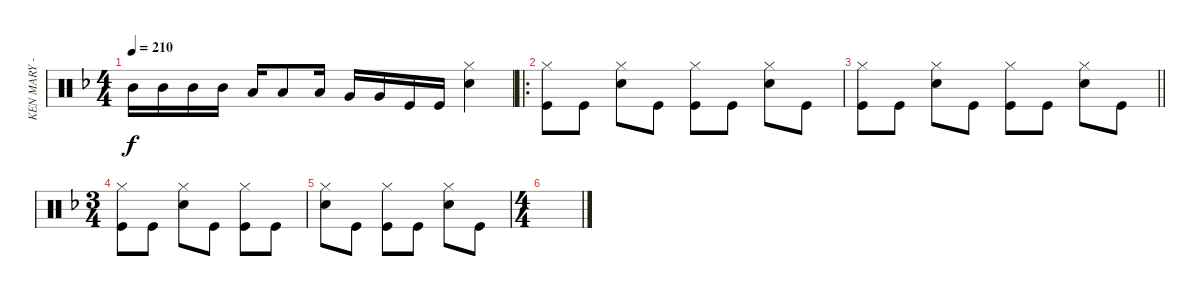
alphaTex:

\track ("KEN MARY - DRUMS" "KEN MARY -") {instrument percussion}
\staff {score}
\articulation defaults
\ts (4 4)
\tempo 210
\clef neutral
\ks f "Mid Tom (hit)".16{dy f} "Mid Tom (hit)".16 "Mid Tom (hit)".16 "Mid Tom (hit)".16 "Low Tom (hit)".16 "Low Tom (hit)".8 "Low Tom (hit)".16 "Very Low Tom (hit)".16 "Very Low Tom (hit)".16 "Kick (hit)".16 "Kick (hit)".16
("Hi-Hat (closed)" "Snare (hit) 2").4 |
\ro
("Hi-Hat (closed)" "Kick (hit)").8 "Kick (hit)".8 ("Hi-Hat (closed)" "Snare (hit) 2").8 "Kick (hit)".8 ("Hi-Hat (closed)" "Kick (hit)").8 "Kick (hit)".8 ("Hi-Hat (closed)" "Snare (hit) 2").8 "Kick (hit)".8 |
\barLineRight lightlight
("Hi-Hat (closed)" "Kick (hit)").8 "Kick (hit)".8 ("Hi-Hat (closed)" "Snare (hit) 2").8 "Kick (hit)".8 ("Hi-Hat (closed)" "Kick (hit)").8 "Kick (hit)".8 ("Hi-Hat (closed)" "Snare (hit) 2").8 "Kick (hit)".8 |
\ts (3 4)
("Hi-Hat (closed)" "Kick (hit)").8 "Kick (hit)".8 ("Hi-Hat (closed)" "Snare (hit) 2").8 "Kick (hit)".8 ("Hi-Hat (closed)" "Kick (hit)").8 "Kick (hit)".8 |
("Hi-Hat (closed)" "Snare (hit) 2").8 "Kick (hit)".8 ("Hi-Hat (closed)" "Kick (hit)").8 "Kick (hit)".8 ("Hi-Hat (closed)" "Snare (hit) 2").8 "Kick (hit)".8 |
\ts (4 4)
